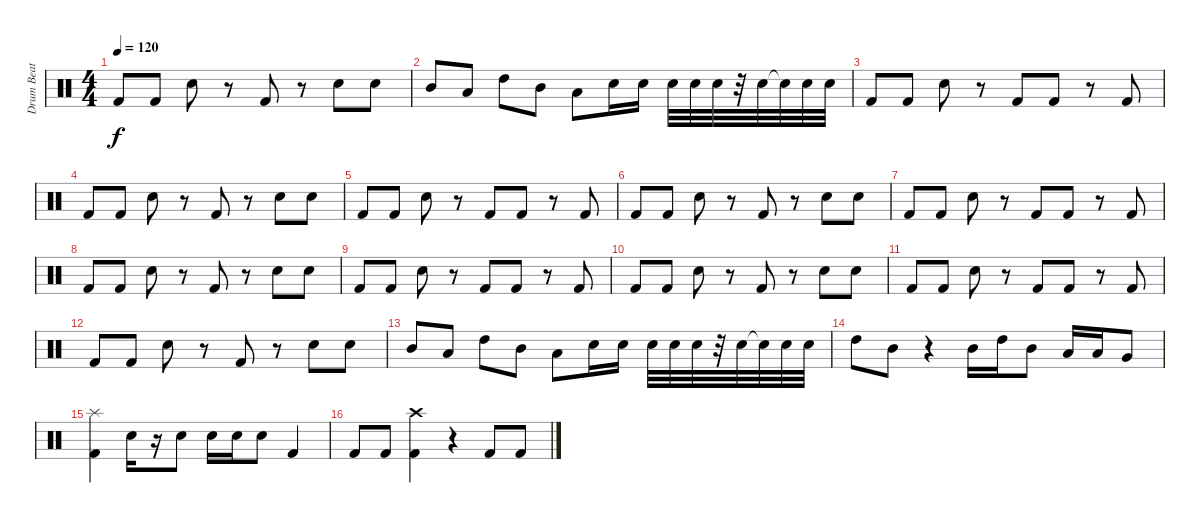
\track ("Drum Beat" "Drum Beat") {instrument percussion}
\staff {score}
\articulation defaults
\ts (4 4)
\tempo 120
\clef neutral
\ks c "Kick (hit) 2".8{dy f} "Kick (hit) 2".8 "Electric Snare (hit)".8
r.8 "Kick (hit) 2".8 r.8 "Electric Snare (hit)".8 "Electric Snare (hit)".8 |
"Mid Tom (hit)".8 "Low Tom (hit)".8 "High Tom (hit)".8 "Mid Tom (hit)".8 "Low Tom (hit)".8 "Electric Snare (hit)".16 "Electric Snare (hit)".16 "Electric Snare (hit)".32 "Electric Snare (hit)".32 "Electric Snare (hit)".32 r.32 "Electric Snare (hit)".32 "Electric Snare (hit)"{t}.32 "Electric Snare (hit)".32 "Electric Snare (hit)".32 |
"Kick (hit) 2".8 "Kick (hit) 2".8 "Electric Snare (hit)".8 r.8 "Kick (hit) 2".8 "Kick (hit) 2".8 r.8 "Kick (hit) 2".8 |
"Kick (hit) 2".8 "Kick (hit) 2".8 "Electric Snare (hit)".8 r.8 "Kick (hit) 2".8 r.8 "Electric Snare (hit)".8 "Electric Snare (hit)".8 |
"Kick (hit) 2".8 "Kick (hit) 2".8 "Electric Snare (hit)".8 r.8 "Kick (hit) 2".8 "Kick (hit) 2".8 r.8 "Kick (hit) 2".8 |
"Kick (hit) 2".8 "Kick (hit) 2".8 "Electric Snare (hit)".8 r.8 "Kick (hit) 2".8 r.8 "Electric Snare (hit)".8 "Electric Snare (hit)".8 |
"Kick (hit) 2".8 "Kick (hit) 2".8 "Electric Snare (hit)".8 r.8 "Kick (hit) 2".8 "Kick (hit) 2".8 r.8 "Kick (hit) 2".8 |
"Kick (hit) 2".8 "Kick (hit) 2".8 "Electric Snare (hit)".8 r.8 "Kick (hit) 2".8 r.8 "Electric Snare (hit)".8 "Electric Snare (hit)".8 |
"Kick (hit) 2".8 "Kick (hit) 2".8 "Electric Snare (hit)".8 r.8 "Kick (hit) 2".8 "Kick (hit) 2".8 r.8 "Kick (hit) 2".8 |
"Kick (hit) 2".8 "Kick (hit) 2".8 "Electric Snare (hit)".8 r.8 "Kick (hit) 2".8 r.8 "Electric Snare (hit)".8 "Electric Snare (hit)".8 |
"Kick (hit) 2".8 "Kick (hit) 2".8 "Electric Snare (hit)".8 r.8 "Kick (hit) 2".8 "Kick (hit) 2".8 r.8 "Kick (hit) 2".8 |
"Kick (hit) 2".8 "Kick (hit) 2".8 "Electric Snare (hit)".8 r.8 "Kick (hit) 2".8 r.8 "Electric Snare (hit)".8 "Electric Snare (hit)".8 |
"Mid Tom (hit)".8 "Low Tom (hit)".8 "High Tom (hit)".8 "Mid Tom (hit)".8 "Low Tom (hit)".8 "Electric Snare (hit)".16 "Electric Snare (hit)".16 "Electric Snare (hit)".32 "Electric Snare (hit)".32 "Electric Snare (hit)".32 r.32 "Electric Snare (hit)".32 "Electric Snare (hit)"{t}.32 "Electric Snare (hit)".32 "Electric Snare (hit)".32 |
"High Tom (hit)".8 "Mid Tom (hit)".8 r.4 "Mid Tom (hit)".16 "High Tom (hit)".16 "Mid Tom (hit)".8 "Low Tom (hit)".16 "Low Tom (hit)".16 "Very Low Tom (hit)".8 |
("Kick (hit) 2" "Splash (hit)").4 "Electric Snare (hit)".16 r.16 "Electric Snare (hit)".8 "Electric Snare (hit)".16 "Electric Snare (hit)".16 "Electric Snare (hit)".8 "Kick (hit) 2".4 |
"Kick (hit) 2".8 "Kick (hit) 2".8 ("Kick (hit) 2" "Crash high (hit)").4 r.4 "Kick (hit) 2".8 "Kick (hit) 2".8
